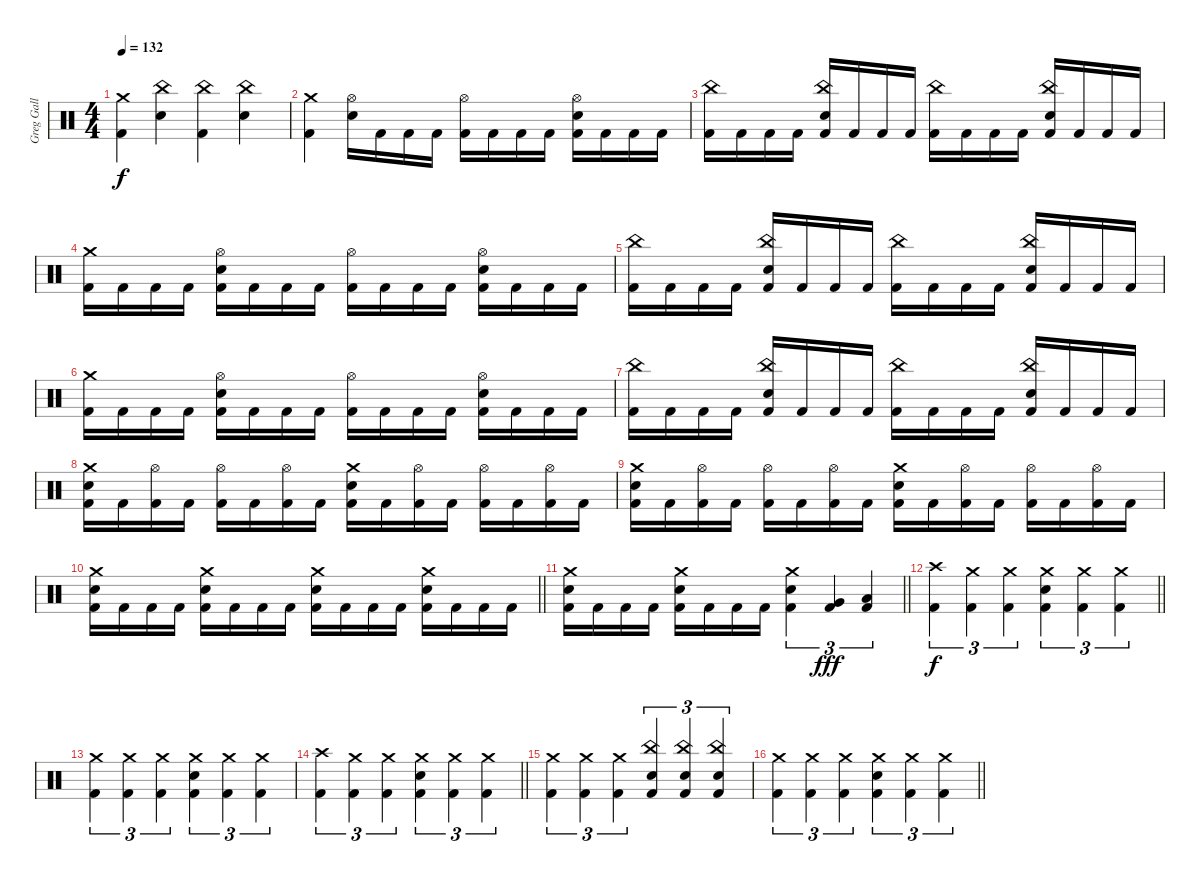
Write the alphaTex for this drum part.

\track ("Greg Gall" "Greg Gall") {instrument percussion}
\staff {score}
\articulation defaults
\ts (4 4)
\tempo 132
\clef neutral
\ks c
("Crash medium (hit)" "Kick (hit) 2").4{dy f} ("China (hit)" "Electric Snare (hit)").4 ("China (hit)" "Kick (hit) 2").4 ("China (hit)" "Electric Snare (hit)").4 |
("Crash medium (hit)" "Kick (hit) 2").4 ("Hi-Hat (open)" "Electric Snare (hit)").16 "Kick (hit) 2".16 "Kick (hit) 2".16 "Kick (hit) 2".16 ("Hi-Hat (open)" "Kick (hit) 2").16 "Kick (hit) 2".16 "Kick (hit) 2".16 "Kick (hit) 2".16 ("Hi-Hat (open)" "Electric Snare (hit)" "Kick (hit) 2").16 "Kick (hit) 2".16 "Kick (hit) 2".16 "Kick (hit) 2".16 |
("China (hit)" "Kick (hit) 2").16 "Kick (hit) 2".16 "Kick (hit) 2".16 "Kick (hit) 2".16 ("China (hit)" "Electric Snare (hit)" "Kick (hit) 2").16 "Kick (hit) 2".16 "Kick (hit) 2".16 "Kick (hit) 2".16 ("China (hit)" "Kick (hit) 2").16 "Kick (hit) 2".16 "Kick (hit) 2".16 "Kick (hit) 2".16 ("China (hit)" "Electric Snare (hit)" "Kick (hit) 2").16 "Kick (hit) 2".16 "Kick (hit) 2".16 "Kick (hit) 2".16 |
("Crash medium (hit)" "Kick (hit) 2").16 "Kick (hit) 2".16 "Kick (hit) 2".16 "Kick (hit) 2".16 ("Hi-Hat (open)" "Electric Snare (hit)" "Kick (hit) 2").16 "Kick (hit) 2".16 "Kick (hit) 2".16 "Kick (hit) 2".16 ("Hi-Hat (open)" "Kick (hit) 2").16 "Kick (hit) 2".16 "Kick (hit) 2".16 "Kick (hit) 2".16 ("Hi-Hat (open)" "Electric Snare (hit)" "Kick (hit) 2").16 "Kick (hit) 2".16 "Kick (hit) 2".16 "Kick (hit) 2".16 |
("China (hit)" "Kick (hit) 2").16 "Kick (hit) 2".16 "Kick (hit) 2".16 "Kick (hit) 2".16 ("China (hit)" "Electric Snare (hit)" "Kick (hit) 2").16 "Kick (hit) 2".16 "Kick (hit) 2".16 "Kick (hit) 2".16 ("China (hit)" "Kick (hit) 2").16 "Kick (hit) 2".16 "Kick (hit) 2".16 "Kick (hit) 2".16 ("China (hit)" "Electric Snare (hit)" "Kick (hit) 2").16 "Kick (hit) 2".16 "Kick (hit) 2".16 "Kick (hit) 2".16 |
("Crash medium (hit)" "Kick (hit) 2").16 "Kick (hit) 2".16 "Kick (hit) 2".16 "Kick (hit) 2".16 ("Hi-Hat (open)" "Electric Snare (hit)" "Kick (hit) 2").16 "Kick (hit) 2".16 "Kick (hit) 2".16 "Kick (hit) 2".16 ("Hi-Hat (open)" "Kick (hit) 2").16 "Kick (hit) 2".16 "Kick (hit) 2".16 "Kick (hit) 2".16 ("Hi-Hat (open)" "Electric Snare (hit)" "Kick (hit) 2").16 "Kick (hit) 2".16 "Kick (hit) 2".16 "Kick (hit) 2".16 |
("China (hit)" "Kick (hit) 2").16 "Kick (hit) 2".16 "Kick (hit) 2".16 "Kick (hit) 2".16 ("China (hit)" "Electric Snare (hit)" "Kick (hit) 2").16 "Kick (hit) 2".16 "Kick (hit) 2".16 "Kick (hit) 2".16 ("China (hit)" "Kick (hit) 2").16 "Kick (hit) 2".16 "Kick (hit) 2".16 "Kick (hit) 2".16 ("China (hit)" "Electric Snare (hit)" "Kick (hit) 2").16 "Kick (hit) 2".16 "Kick (hit) 2".16 "Kick (hit) 2".16 |
("Crash medium (hit)" "Electric Snare (hit)" "Kick (hit) 2").16 "Kick (hit) 2".16 ("Hi-Hat (open)" "Kick (hit) 2").16 "Kick (hit) 2".16 ("Hi-Hat (open)" "Kick (hit) 2").16 "Kick (hit) 2".16 ("Hi-Hat (open)" "Kick (hit) 2").16 "Kick (hit) 2".16 ("Crash medium (hit)" "Electric Snare (hit)" "Kick (hit) 2").16 "Kick (hit) 2".16 ("Hi-Hat (open)" "Kick (hit) 2").16 "Kick (hit) 2".16 ("Hi-Hat (open)" "Kick (hit) 2").16 "Kick (hit) 2".16 ("Hi-Hat (open)" "Kick (hit) 2").16 "Kick (hit) 2".16 |
("Crash medium (hit)" "Electric Snare (hit)" "Kick (hit) 2").16 "Kick (hit) 2".16 ("Hi-Hat (open)" "Kick (hit) 2").16 "Kick (hit) 2".16 ("Hi-Hat (open)" "Kick (hit) 2").16 "Kick (hit) 2".16 ("Hi-Hat (open)" "Kick (hit) 2").16 "Kick (hit) 2".16 ("Crash medium (hit)" "Electric Snare (hit)" "Kick (hit) 2").16 "Kick (hit) 2".16 ("Hi-Hat (open)" "Kick (hit) 2").16 "Kick (hit) 2".16 ("Hi-Hat (open)" "Kick (hit) 2").16 "Kick (hit) 2".16 ("Hi-Hat (open)" "Kick (hit) 2").16 "Kick (hit) 2".16 |
\barLineRight lightlight
("Crash medium (hit)" "Electric Snare (hit)" "Kick (hit) 2").16 "Kick (hit) 2".16 "Kick (hit) 2".16 "Kick (hit) 2".16 ("Crash medium (hit)" "Electric Snare (hit)" "Kick (hit) 2").16 "Kick (hit) 2".16 "Kick (hit) 2".16 "Kick (hit) 2".16 ("Crash medium (hit)" "Electric Snare (hit)" "Kick (hit) 2").16 "Kick (hit) 2".16 "Kick (hit) 2".16 "Kick (hit) 2".16 ("Crash medium (hit)" "Electric Snare (hit)" "Kick (hit) 2").16 "Kick (hit) 2".16 "Kick (hit) 2".16 "Kick (hit) 2".16 |
\barLineRight lightlight
("Crash medium (hit)" "Electric Snare (hit)" "Kick (hit) 2").16 "Kick (hit) 2".16 "Kick (hit) 2".16 "Kick (hit) 2".16 ("Crash medium (hit)" "Electric Snare (hit)" "Kick (hit) 2").16 "Kick (hit) 2".16 "Kick (hit) 2".16 "Kick (hit) 2".16 ("Crash medium (hit)" "Electric Snare (hit)" "Kick (hit) 2").4{tu (3 2)} ("Very Low Tom (hit)" "Kick (hit) 2").4{tu (3 2) dy fff} ("Low Floor Tom (hit)" "Kick (hit) 2").4{tu (3 2)} |
\barLineRight lightlight
("Crash high (hit)" "Kick (hit) 2").4{tu (3 2) dy f} ("Crash medium (hit)" "Kick (hit) 2").4{tu (3 2)} ("Crash medium (hit)" "Kick (hit) 2").4{tu (3 2)} ("Crash medium (hit)" "Electric Snare (hit)" "Kick (hit) 2").4{tu (3 2)} ("Crash medium (hit)" "Kick (hit) 2").4{tu (3 2)} ("Crash medium (hit)" "Kick (hit) 2").4{tu (3 2)} |
("Crash medium (hit)" "Kick (hit) 2").4{tu (3 2)} ("Crash medium (hit)" "Kick (hit) 2").4{tu (3 2)} ("Crash medium (hit)" "Kick (hit) 2").4{tu (3 2)} ("Crash medium (hit)" "Electric Snare (hit)" "Kick (hit) 2").4{tu (3 2)} ("Crash medium (hit)" "Kick (hit) 2").4{tu (3 2)} ("Crash medium (hit)" "Kick (hit) 2").4{tu (3 2)} |
\barLineRight lightlight
("Crash high (hit)" "Kick (hit) 2").4{tu (3 2)} ("Crash medium (hit)" "Kick (hit) 2").4{tu (3 2)} ("Crash medium (hit)" "Kick (hit) 2").4{tu (3 2)} ("Crash medium (hit)" "Electric Snare (hit)" "Kick (hit) 2").4{tu (3 2)} ("Crash medium (hit)" "Kick (hit) 2").4{tu (3 2)} ("Crash medium (hit)" "Kick (hit) 2").4{tu (3 2)} |
("Crash medium (hit)" "Kick (hit) 2").4{tu (3 2)} ("Crash medium (hit)" "Kick (hit) 2").4{tu (3 2)} ("Crash medium (hit)" "Kick (hit) 2").4{tu (3 2)} ("China (hit)" "Electric Snare (hit)" "Kick (hit) 2").4{tu (3 2)} ("China (hit)" "Electric Snare (hit)" "Kick (hit) 2").4{tu (3 2)} ("China (hit)" "Electric Snare (hit)" "Kick (hit) 2").4{tu (3 2)} |
\barLineRight lightlight
("Crash medium (hit)" "Kick (hit) 2").4{tu (3 2)} ("Crash medium (hit)" "Kick (hit) 2").4{tu (3 2)} ("Crash medium (hit)" "Kick (hit) 2").4{tu (3 2)} ("Crash medium (hit)" "Electric Snare (hit)" "Kick (hit) 2").4{tu (3 2)} ("Crash medium (hit)" "Kick (hit) 2").4{tu (3 2)} ("Crash medium (hit)" "Kick (hit) 2").4{tu (3 2)}
